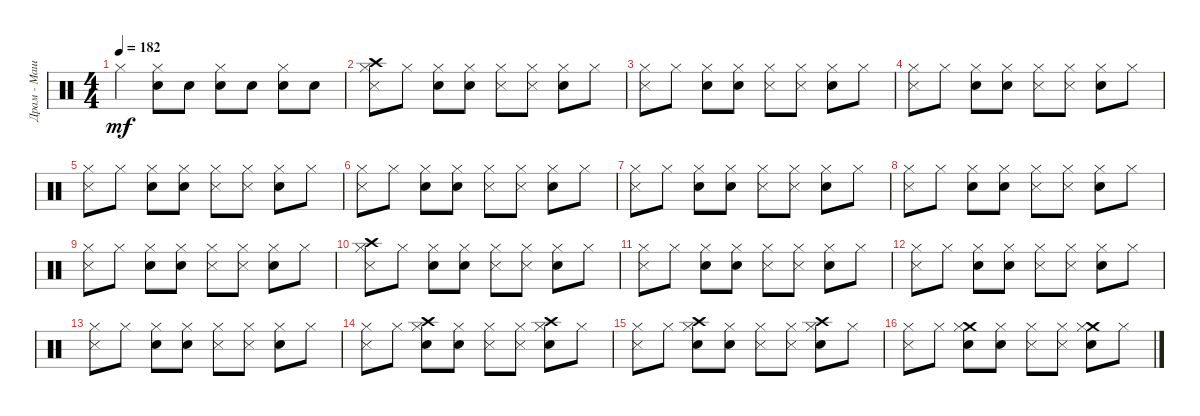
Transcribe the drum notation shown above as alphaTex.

\track ("Драм - Машина" "Драм - Маш") {instrument percussion}
\staff {score}
\articulation defaults
\ts (4 4)
\tempo 182
\clef neutral
\ks c "Hi-Hat (closed)".4{dy mf}
("Metronome (bell)" "Hi-Hat (closed)").8 "Metronome (bell)".8 ("Metronome (bell)" "Hi-Hat (closed)").8 "Metronome (bell)".8 ("Metronome (bell)" "Hi-Hat (closed)").8 "Metronome (bell)".8 |
("Metronome (hit)" "Crash high (hit)" "Hi-Hat (closed)").8 "Hi-Hat (closed)".8 ("Metronome (bell)" "Hi-Hat (closed)").8 ("Metronome (bell)" "Hi-Hat (closed)").8 ("Metronome (hit)" "Hi-Hat (closed)").8 ("Metronome (hit)" "Hi-Hat (closed)").8 ("Metronome (bell)" "Hi-Hat (closed)").8 "Hi-Hat (closed)".8 |
("Metronome (hit)" "Hi-Hat (closed)").8 "Hi-Hat (closed)".8 ("Metronome (bell)" "Hi-Hat (closed)").8 ("Metronome (bell)" "Hi-Hat (closed)").8 ("Metronome (hit)" "Hi-Hat (closed)").8 ("Metronome (hit)" "Hi-Hat (closed)").8 ("Metronome (bell)" "Hi-Hat (closed)").8 "Hi-Hat (closed)".8 |
("Metronome (hit)" "Hi-Hat (closed)").8 "Hi-Hat (closed)".8 ("Metronome (bell)" "Hi-Hat (closed)").8 ("Metronome (bell)" "Hi-Hat (closed)").8 ("Metronome (hit)" "Hi-Hat (closed)").8 ("Metronome (hit)" "Hi-Hat (closed)").8 ("Metronome (bell)" "Hi-Hat (closed)").8 "Hi-Hat (closed)".8 |
("Metronome (hit)" "Hi-Hat (closed)").8 "Hi-Hat (closed)".8 ("Metronome (bell)" "Hi-Hat (closed)").8 ("Metronome (bell)" "Hi-Hat (closed)").8 ("Metronome (hit)" "Hi-Hat (closed)").8 ("Metronome (hit)" "Hi-Hat (closed)").8 ("Metronome (bell)" "Hi-Hat (closed)").8 "Hi-Hat (closed)".8 |
("Metronome (hit)" "Hi-Hat (closed)").8 "Hi-Hat (closed)".8 ("Metronome (bell)" "Hi-Hat (closed)").8 ("Metronome (bell)" "Hi-Hat (closed)").8 ("Metronome (hit)" "Hi-Hat (closed)").8 ("Metronome (hit)" "Hi-Hat (closed)").8 ("Metronome (bell)" "Hi-Hat (closed)").8 "Hi-Hat (closed)".8 |
("Metronome (hit)" "Hi-Hat (closed)").8 "Hi-Hat (closed)".8 ("Metronome (bell)" "Hi-Hat (closed)").8 ("Metronome (bell)" "Hi-Hat (closed)").8 ("Metronome (hit)" "Hi-Hat (closed)").8 ("Metronome (hit)" "Hi-Hat (closed)").8 ("Metronome (bell)" "Hi-Hat (closed)").8 "Hi-Hat (closed)".8 |
("Metronome (hit)" "Hi-Hat (closed)").8 "Hi-Hat (closed)".8 ("Metronome (bell)" "Hi-Hat (closed)").8 ("Metronome (bell)" "Hi-Hat (closed)").8 ("Metronome (hit)" "Hi-Hat (closed)").8 ("Metronome (hit)" "Hi-Hat (closed)").8 ("Metronome (bell)" "Hi-Hat (closed)").8 "Hi-Hat (closed)".8 |
("Metronome (hit)" "Hi-Hat (closed)").8 "Hi-Hat (closed)".8 ("Metronome (bell)" "Hi-Hat (closed)").8 ("Metronome (bell)" "Hi-Hat (closed)").8 ("Metronome (hit)" "Hi-Hat (closed)").8 ("Metronome (hit)" "Hi-Hat (closed)").8 ("Metronome (bell)" "Hi-Hat (closed)").8 "Hi-Hat (closed)".8 |
("Metronome (hit)" "Crash high (hit)" "Hi-Hat (closed)").8 "Hi-Hat (closed)".8 ("Metronome (bell)" "Hi-Hat (closed)").8 ("Metronome (bell)" "Hi-Hat (closed)").8 ("Metronome (hit)" "Hi-Hat (closed)").8 ("Metronome (hit)" "Hi-Hat (closed)").8 ("Metronome (bell)" "Hi-Hat (closed)").8 "Hi-Hat (closed)".8 |
("Metronome (hit)" "Hi-Hat (closed)").8 "Hi-Hat (closed)".8 ("Metronome (bell)" "Hi-Hat (closed)").8 ("Metronome (bell)" "Hi-Hat (closed)").8 ("Metronome (hit)" "Hi-Hat (closed)").8 ("Metronome (hit)" "Hi-Hat (closed)").8 ("Metronome (bell)" "Hi-Hat (closed)").8 "Hi-Hat (closed)".8 |
("Metronome (hit)" "Hi-Hat (closed)").8 "Hi-Hat (closed)".8 ("Metronome (bell)" "Hi-Hat (closed)").8 ("Metronome (bell)" "Hi-Hat (closed)").8 ("Metronome (hit)" "Hi-Hat (closed)").8 ("Metronome (hit)" "Hi-Hat (closed)").8 ("Metronome (bell)" "Hi-Hat (closed)").8 "Hi-Hat (closed)".8 |
("Metronome (hit)" "Hi-Hat (closed)").8 "Hi-Hat (closed)".8 ("Metronome (bell)" "Hi-Hat (closed)").8 ("Metronome (bell)" "Hi-Hat (closed)").8 ("Metronome (hit)" "Hi-Hat (closed)").8 ("Metronome (hit)" "Hi-Hat (closed)").8 ("Metronome (bell)" "Hi-Hat (closed)").8 "Hi-Hat (closed)".8 |
("Metronome (hit)" "Hi-Hat (closed)").8 "Hi-Hat (closed)".8 ("Metronome (bell)" "Crash high (hit)" "Hi-Hat (closed)").8 ("Metronome (bell)" "Hi-Hat (closed)").8 ("Metronome (hit)" "Hi-Hat (closed)").8 ("Metronome (hit)" "Hi-Hat (closed)").8 ("Metronome (bell)" "Crash high (hit)" "Hi-Hat (closed)").8 "Hi-Hat (closed)".8 |
("Metronome (hit)" "Hi-Hat (closed)").8 "Hi-Hat (closed)".8 ("Metronome (bell)" "Crash high (hit)" "Hi-Hat (closed)").8 ("Metronome (bell)" "Hi-Hat (closed)").8 ("Metronome (hit)" "Hi-Hat (closed)").8 ("Metronome (hit)" "Hi-Hat (closed)").8 ("Metronome (bell)" "Crash high (hit)" "Hi-Hat (closed)").8 "Hi-Hat (closed)".8 |
("Metronome (hit)" "Hi-Hat (closed)").8 "Hi-Hat (closed)".8 ("Metronome (bell)" "Crash medium (hit)" "Hi-Hat (closed)").8 ("Metronome (bell)" "Hi-Hat (closed)").8 ("Metronome (hit)" "Hi-Hat (closed)").8 ("Metronome (hit)" "Hi-Hat (closed)").8 ("Metronome (bell)" "Crash medium (hit)" "Hi-Hat (closed)").8 "Hi-Hat (closed)".8
